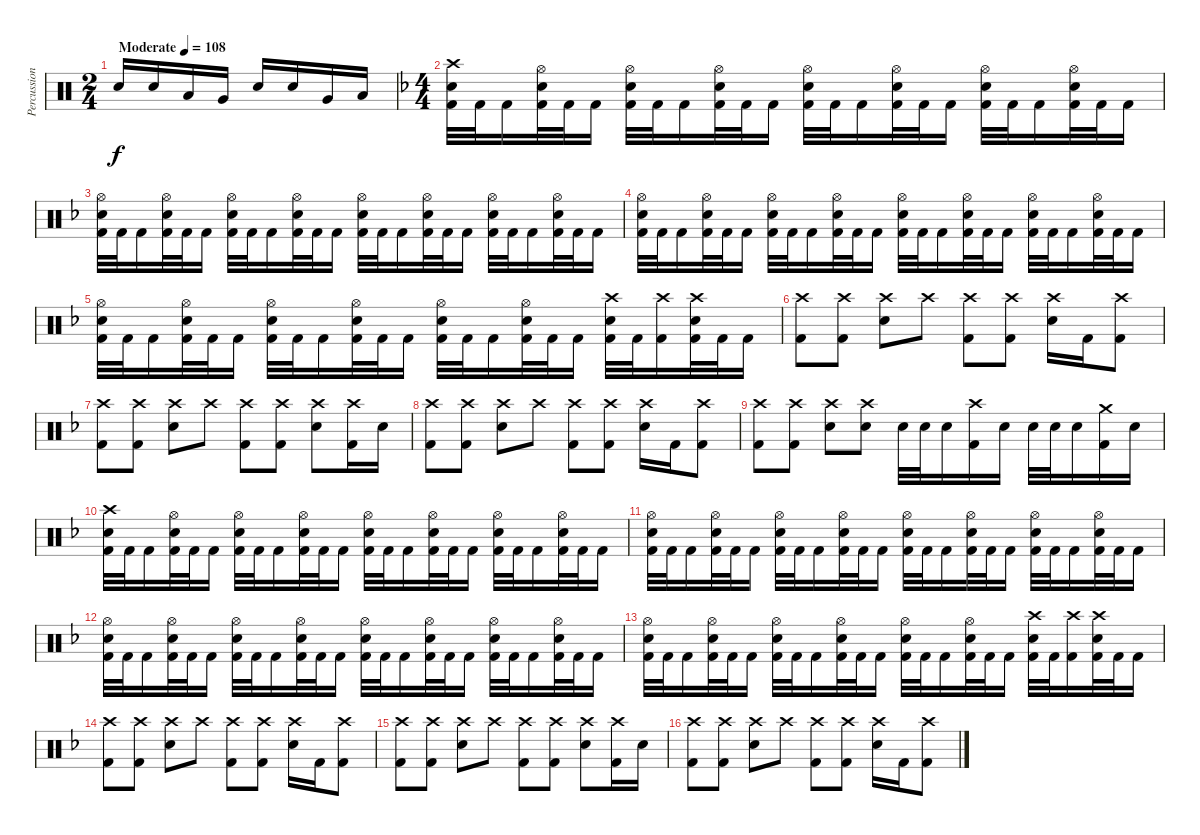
\track ("Percussion" "Percussion") {instrument percussion}
\staff {score}
\articulation defaults
\ts (2 4)
\tempo (108 "Moderate")
\clef neutral
\ks c "Snare (hit) 2".16{dy f} "Snare (hit) 2".16 "Low Tom (hit)".16 "Very Low Tom (hit)".16 "Snare (hit) 2".16 "Snare (hit) 2".16 "Very Low Tom (hit)".16 "Low Floor Tom (hit)".16
|
\ts (4 4)
\ks f
("Crash high (hit)" "Snare (hit) 2" "Kick (hit) 2").32 "Kick (hit) 2".32 "Kick (hit) 2".16 ("Hi-Hat (open)" "Snare (hit) 2" "Kick (hit) 2").32 "Kick (hit) 2".32 "Kick (hit) 2".16 ("Hi-Hat (open)" "Snare (hit) 2" "Kick (hit) 2").32 "Kick (hit) 2".32 "Kick (hit) 2".16 ("Hi-Hat (open)" "Snare (hit) 2" "Kick (hit) 2").32 "Kick (hit) 2".32 "Kick (hit) 2".16 ("Hi-Hat (open)" "Snare (hit) 2" "Kick (hit) 2").32 "Kick (hit) 2".32 "Kick (hit) 2".16 ("Hi-Hat (open)" "Snare (hit) 2" "Kick (hit) 2").32 "Kick (hit) 2".32 "Kick (hit) 2".16 ("Hi-Hat (open)" "Snare (hit) 2" "Kick (hit) 2").32 "Kick (hit) 2".32 "Kick (hit) 2".16 ("Hi-Hat (open)" "Snare (hit) 2" "Kick (hit) 2").32 "Kick (hit) 2".32 "Kick (hit) 2".16 |
("Hi-Hat (open)" "Snare (hit) 2" "Kick (hit) 2").32 "Kick (hit) 2".32 "Kick (hit) 2".16 ("Hi-Hat (open)" "Snare (hit) 2" "Kick (hit) 2").32 "Kick (hit) 2".32 "Kick (hit) 2".16 ("Hi-Hat (open)" "Snare (hit) 2" "Kick (hit) 2").32 "Kick (hit) 2".32 "Kick (hit) 2".16 ("Hi-Hat (open)" "Snare (hit) 2" "Kick (hit) 2").32 "Kick (hit) 2".32 "Kick (hit) 2".16 ("Hi-Hat (open)" "Snare (hit) 2" "Kick (hit) 2").32 "Kick (hit) 2".32 "Kick (hit) 2".16 ("Hi-Hat (open)" "Snare (hit) 2" "Kick (hit) 2").32 "Kick (hit) 2".32 "Kick (hit) 2".16 ("Hi-Hat (open)" "Snare (hit) 2" "Kick (hit) 2").32 "Kick (hit) 2".32 "Kick (hit) 2".16 ("Hi-Hat (open)" "Snare (hit) 2" "Kick (hit) 2").32 "Kick (hit) 2".32 "Kick (hit) 2".16 |
("Hi-Hat (open)" "Snare (hit) 2" "Kick (hit) 2").32 "Kick (hit) 2".32 "Kick (hit) 2".16 ("Hi-Hat (open)" "Snare (hit) 2" "Kick (hit) 2").32 "Kick (hit) 2".32 "Kick (hit) 2".16 ("Hi-Hat (open)" "Snare (hit) 2" "Kick (hit) 2").32 "Kick (hit) 2".32 "Kick (hit) 2".16 ("Hi-Hat (open)" "Snare (hit) 2" "Kick (hit) 2").32 "Kick (hit) 2".32 "Kick (hit) 2".16 ("Hi-Hat (open)" "Snare (hit) 2" "Kick (hit) 2").32 "Kick (hit) 2".32 "Kick (hit) 2".16 ("Hi-Hat (open)" "Snare (hit) 2" "Kick (hit) 2").32 "Kick (hit) 2".32 "Kick (hit) 2".16 ("Hi-Hat (open)" "Snare (hit) 2" "Kick (hit) 2").32 "Kick (hit) 2".32 "Kick (hit) 2".16 ("Hi-Hat (open)" "Snare (hit) 2" "Kick (hit) 2").32 "Kick (hit) 2".32 "Kick (hit) 2".16 |
("Hi-Hat (open)" "Snare (hit) 2" "Kick (hit) 2").32 "Kick (hit) 2".32 "Kick (hit) 2".16 ("Hi-Hat (open)" "Snare (hit) 2" "Kick (hit) 2").32 "Kick (hit) 2".32 "Kick (hit) 2".16 ("Hi-Hat (open)" "Snare (hit) 2" "Kick (hit) 2").32 "Kick (hit) 2".32 "Kick (hit) 2".16 ("Hi-Hat (open)" "Snare (hit) 2" "Kick (hit) 2").32 "Kick (hit) 2".32 "Kick (hit) 2".16 ("Hi-Hat (open)" "Snare (hit) 2" "Kick (hit) 2").32 "Kick (hit) 2".32 "Kick (hit) 2".16 ("Hi-Hat (open)" "Snare (hit) 2" "Kick (hit) 2").32 "Kick (hit) 2".32 "Kick (hit) 2".16 ("Crash high (hit)" "Snare (hit) 2" "Kick (hit) 2").32 "Kick (hit) 2".32 ("Crash high (hit)" "Kick (hit) 2").16 ("Crash high (hit)" "Snare (hit) 2" "Kick (hit) 2").32 "Kick (hit) 2".32 "Kick (hit) 2".16 |
("Crash high (hit)" "Kick (hit) 2").8 ("Crash high (hit)" "Kick (hit) 2").8 ("Crash high (hit)" "Snare (hit) 2").8 "Crash high (hit)".8 ("Crash high (hit)" "Kick (hit) 2").8 ("Crash high (hit)" "Kick (hit) 2").8 ("Crash high (hit)" "Snare (hit) 2").16 "Kick (hit) 2".16 ("Crash high (hit)" "Kick (hit) 2").8 |
("Crash high (hit)" "Kick (hit) 2").8 ("Crash high (hit)" "Kick (hit) 2").8 ("Crash high (hit)" "Snare (hit) 2").8 "Crash high (hit)".8 ("Crash high (hit)" "Kick (hit) 2").8 ("Crash high (hit)" "Kick (hit) 2").8 ("Crash high (hit)" "Snare (hit) 2").8 ("Crash high (hit)" "Kick (hit) 2").16 "Snare (hit) 2".16 |
("Crash high (hit)" "Kick (hit) 2").8 ("Crash high (hit)" "Kick (hit) 2").8 ("Crash high (hit)" "Snare (hit) 2").8 "Crash high (hit)".8 ("Crash high (hit)" "Kick (hit) 2").8 ("Crash high (hit)" "Kick (hit) 2").8 ("Crash high (hit)" "Snare (hit) 2").16 "Kick (hit) 2".16 ("Crash high (hit)" "Kick (hit) 2").8 |
("Crash high (hit)" "Kick (hit) 2").8 ("Crash high (hit)" "Kick (hit) 2").8 ("Crash high (hit)" "Snare (hit) 2").8 ("Crash high (hit)" "Snare (hit) 2").8 "Snare (hit) 2".32 "Snare (hit) 2".32 "Snare (hit) 2".16 ("Crash high (hit)" "Kick (hit) 2").16 "Snare (hit) 2".16 "Snare (hit) 2".32 "Snare (hit) 2".32 "Snare (hit) 2".16 ("Crash medium (hit)" "Kick (hit) 2").16 "Snare (hit) 2".16 |
("Crash high (hit)" "Snare (hit) 2" "Kick (hit) 2").32 "Kick (hit) 2".32 "Kick (hit) 2".16 ("Hi-Hat (open)" "Snare (hit) 2" "Kick (hit) 2").32 "Kick (hit) 2".32 "Kick (hit) 2".16 ("Hi-Hat (open)" "Snare (hit) 2" "Kick (hit) 2").32 "Kick (hit) 2".32 "Kick (hit) 2".16 ("Hi-Hat (open)" "Snare (hit) 2" "Kick (hit) 2").32 "Kick (hit) 2".32 "Kick (hit) 2".16 ("Hi-Hat (open)" "Snare (hit) 2" "Kick (hit) 2").32 "Kick (hit) 2".32 "Kick (hit) 2".16 ("Hi-Hat (open)" "Snare (hit) 2" "Kick (hit) 2").32 "Kick (hit) 2".32 "Kick (hit) 2".16 ("Hi-Hat (open)" "Snare (hit) 2" "Kick (hit) 2").32 "Kick (hit) 2".32 "Kick (hit) 2".16 ("Hi-Hat (open)" "Snare (hit) 2" "Kick (hit) 2").32 "Kick (hit) 2".32 "Kick (hit) 2".16 |
("Hi-Hat (open)" "Snare (hit) 2" "Kick (hit) 2").32 "Kick (hit) 2".32 "Kick (hit) 2".16 ("Hi-Hat (open)" "Snare (hit) 2" "Kick (hit) 2").32 "Kick (hit) 2".32 "Kick (hit) 2".16 ("Hi-Hat (open)" "Snare (hit) 2" "Kick (hit) 2").32 "Kick (hit) 2".32 "Kick (hit) 2".16 ("Hi-Hat (open)" "Snare (hit) 2" "Kick (hit) 2").32 "Kick (hit) 2".32 "Kick (hit) 2".16 ("Hi-Hat (open)" "Snare (hit) 2" "Kick (hit) 2").32 "Kick (hit) 2".32 "Kick (hit) 2".16 ("Hi-Hat (open)" "Snare (hit) 2" "Kick (hit) 2").32 "Kick (hit) 2".32 "Kick (hit) 2".16 ("Hi-Hat (open)" "Snare (hit) 2" "Kick (hit) 2").32 "Kick (hit) 2".32 "Kick (hit) 2".16 ("Hi-Hat (open)" "Snare (hit) 2" "Kick (hit) 2").32 "Kick (hit) 2".32 "Kick (hit) 2".16 |
("Hi-Hat (open)" "Snare (hit) 2" "Kick (hit) 2").32 "Kick (hit) 2".32 "Kick (hit) 2".16 ("Hi-Hat (open)" "Snare (hit) 2" "Kick (hit) 2").32 "Kick (hit) 2".32 "Kick (hit) 2".16 ("Hi-Hat (open)" "Snare (hit) 2" "Kick (hit) 2").32 "Kick (hit) 2".32 "Kick (hit) 2".16 ("Hi-Hat (open)" "Snare (hit) 2" "Kick (hit) 2").32 "Kick (hit) 2".32 "Kick (hit) 2".16 ("Hi-Hat (open)" "Snare (hit) 2" "Kick (hit) 2").32 "Kick (hit) 2".32 "Kick (hit) 2".16 ("Hi-Hat (open)" "Snare (hit) 2" "Kick (hit) 2").32 "Kick (hit) 2".32 "Kick (hit) 2".16 ("Hi-Hat (open)" "Snare (hit) 2" "Kick (hit) 2").32 "Kick (hit) 2".32 "Kick (hit) 2".16 ("Hi-Hat (open)" "Snare (hit) 2" "Kick (hit) 2").32 "Kick (hit) 2".32 "Kick (hit) 2".16 |
("Hi-Hat (open)" "Snare (hit) 2" "Kick (hit) 2").32 "Kick (hit) 2".32 "Kick (hit) 2".16 ("Hi-Hat (open)" "Snare (hit) 2" "Kick (hit) 2").32 "Kick (hit) 2".32 "Kick (hit) 2".16 ("Hi-Hat (open)" "Snare (hit) 2" "Kick (hit) 2").32 "Kick (hit) 2".32 "Kick (hit) 2".16 ("Hi-Hat (open)" "Snare (hit) 2" "Kick (hit) 2").32 "Kick (hit) 2".32 "Kick (hit) 2".16 ("Hi-Hat (open)" "Snare (hit) 2" "Kick (hit) 2").32 "Kick (hit) 2".32 "Kick (hit) 2".16 ("Hi-Hat (open)" "Snare (hit) 2" "Kick (hit) 2").32 "Kick (hit) 2".32 "Kick (hit) 2".16 ("Crash high (hit)" "Snare (hit) 2" "Kick (hit) 2").32 "Kick (hit) 2".32 ("Crash high (hit)" "Kick (hit) 2").16 ("Crash high (hit)" "Snare (hit) 2" "Kick (hit) 2").32 "Kick (hit) 2".32 "Kick (hit) 2".16 |
("Crash high (hit)" "Kick (hit) 2").8 ("Crash high (hit)" "Kick (hit) 2").8 ("Crash high (hit)" "Snare (hit) 2").8 "Crash high (hit)".8 ("Crash high (hit)" "Kick (hit) 2").8 ("Crash high (hit)" "Kick (hit) 2").8 ("Crash high (hit)" "Snare (hit) 2").16 "Kick (hit) 2".16 ("Crash high (hit)" "Kick (hit) 2").8 |
("Crash high (hit)" "Kick (hit) 2").8 ("Crash high (hit)" "Kick (hit) 2").8 ("Crash high (hit)" "Snare (hit) 2").8 "Crash high (hit)".8 ("Crash high (hit)" "Kick (hit) 2").8 ("Crash high (hit)" "Kick (hit) 2").8 ("Crash high (hit)" "Snare (hit) 2").8 ("Crash high (hit)" "Kick (hit) 2").16 "Snare (hit) 2".16 |
("Crash high (hit)" "Kick (hit) 2").8 ("Crash high (hit)" "Kick (hit) 2").8 ("Crash high (hit)" "Snare (hit) 2").8 "Crash high (hit)".8 ("Crash high (hit)" "Kick (hit) 2").8 ("Crash high (hit)" "Kick (hit) 2").8 ("Crash high (hit)" "Snare (hit) 2").16 "Kick (hit) 2".16 ("Crash high (hit)" "Kick (hit) 2").8
